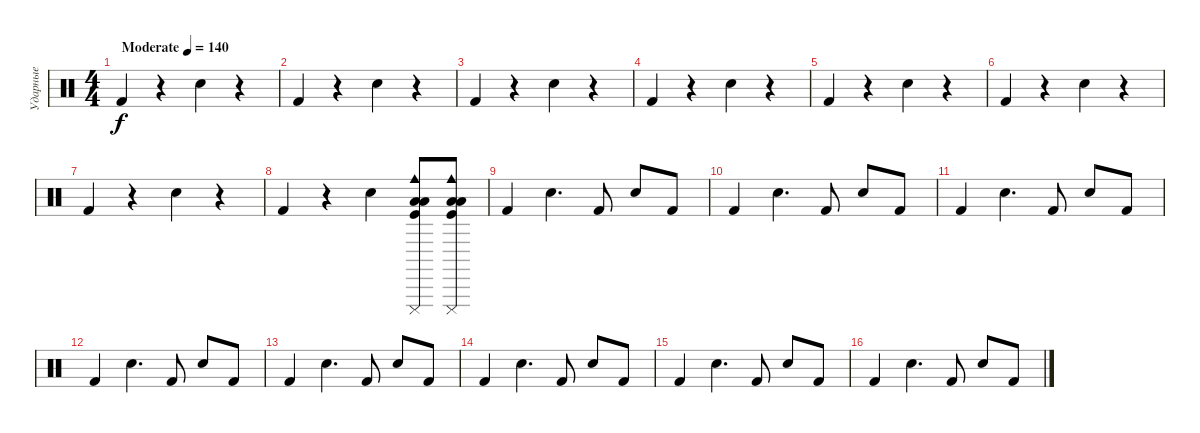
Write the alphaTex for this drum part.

\track ("Ударные" "Ударные") {instrument percussion}
\staff {score}
\articulation defaults
\ts (4 4)
\tempo (140 "Moderate")
\clef neutral
\ks c "Kick (hit) 2".4{dy f}
r.4 "Electric Snare (hit)".4 r.4 |
"Kick (hit) 2".4 r.4 "Electric Snare (hit)".4 r.4 |
"Kick (hit) 2".4 r.4 "Electric Snare (hit)".4 r.4 |
"Kick (hit) 2".4 r.4 "Electric Snare (hit)".4 r.4 |
"Kick (hit) 2".4 r.4 "Electric Snare (hit)".4 r.4 |
"Kick (hit) 2".4 r.4 "Electric Snare (hit)".4 r.4 |
"Kick (hit) 2".4 r.4 "Electric Snare (hit)".4 r.4 |
"Kick (hit) 2".4 r.4 "Electric Snare (hit)".4 ("Kick (hit)" "Low Floor Tom (hit)" "Low Tom (hit)" "Cowbell medium (hit)" "Cuica (mute)").8 ("Kick (hit)" "Low Floor Tom (hit)" "Low Tom (hit)" "Cowbell medium (hit)" "Cuica (mute)").8 |
"Kick (hit) 2".4 "Electric Snare (hit)".4{d} "Kick (hit) 2".8 "Electric Snare (hit)".8 "Kick (hit) 2".8 |
"Kick (hit) 2".4 "Electric Snare (hit)".4{d} "Kick (hit) 2".8 "Electric Snare (hit)".8 "Kick (hit) 2".8 |
"Kick (hit) 2".4 "Electric Snare (hit)".4{d} "Kick (hit) 2".8 "Electric Snare (hit)".8 "Kick (hit) 2".8 |
"Kick (hit) 2".4 "Electric Snare (hit)".4{d} "Kick (hit) 2".8 "Electric Snare (hit)".8 "Kick (hit) 2".8 |
"Kick (hit) 2".4 "Electric Snare (hit)".4{d} "Kick (hit) 2".8 "Electric Snare (hit)".8 "Kick (hit) 2".8 |
"Kick (hit) 2".4 "Electric Snare (hit)".4{d} "Kick (hit) 2".8 "Electric Snare (hit)".8 "Kick (hit) 2".8 |
"Kick (hit) 2".4 "Electric Snare (hit)".4{d} "Kick (hit) 2".8 "Electric Snare (hit)".8 "Kick (hit) 2".8 |
"Kick (hit) 2".4 "Electric Snare (hit)".4{d} "Kick (hit) 2".8 "Electric Snare (hit)".8 "Kick (hit) 2".8
